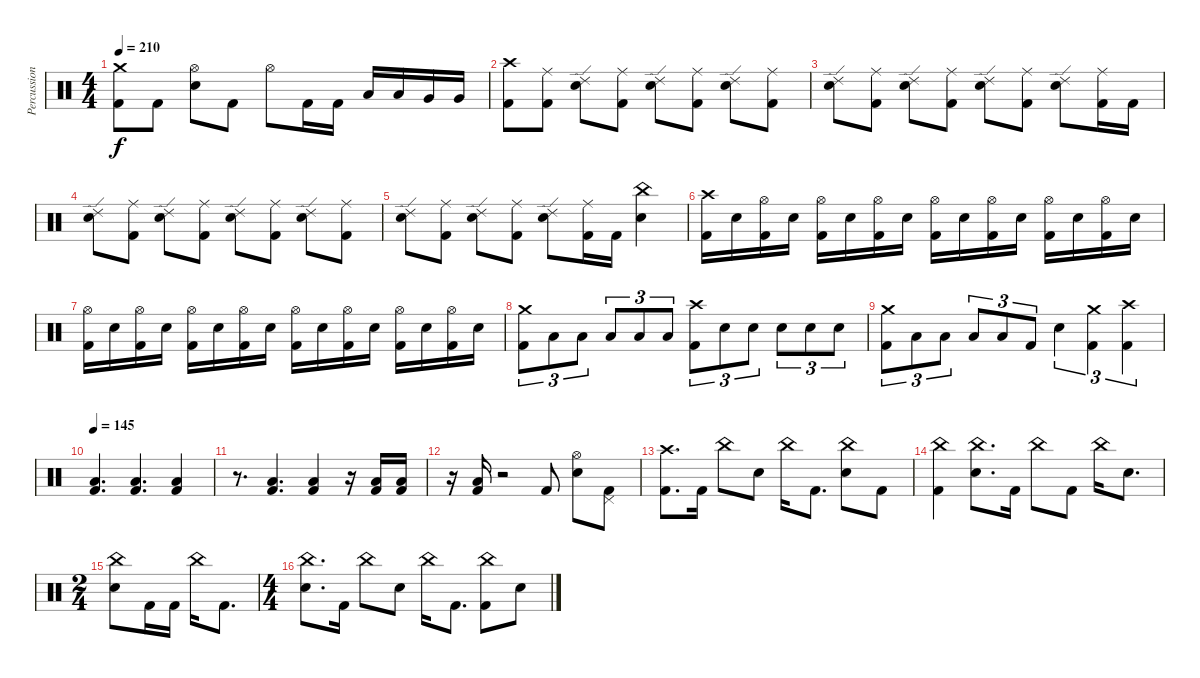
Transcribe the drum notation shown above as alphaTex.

\track ("Percussion" "Percussion") {instrument percussion}
\staff {score}
\articulation defaults
\ts (4 4)
\tempo 210
\clef neutral
\ks c
("Crash medium (hit)" "Kick (hit) 2").8{dy f} "Kick (hit) 2".8 ("Hi-Hat (open)" "Electric Snare (hit)").8 "Kick (hit) 2".8 "Hi-Hat (open)".8 "Kick (hit) 2".16 "Kick (hit) 2".16 "Low Tom (hit)".16 "Low Tom (hit)".16 "Very Low Tom (hit)".16 "Very Low Tom (hit)".16 |
("Crash high (hit)" "Kick (hit) 2").8 ("Ride (middle)" "Kick (hit) 2").8 ("Ride (edge) 2" "Electric Snare (hit)").8 ("Ride (middle)" "Kick (hit) 2").8 ("Ride (edge) 2" "Electric Snare (hit)").8 ("Ride (middle)" "Kick (hit) 2").8 ("Ride (edge) 2" "Electric Snare (hit)").8 ("Ride (middle)" "Kick (hit) 2").8 |
("Ride (edge) 2" "Electric Snare (hit)").8 ("Ride (middle)" "Kick (hit) 2").8 ("Ride (edge) 2" "Electric Snare (hit)").8 ("Ride (middle)" "Kick (hit) 2").8 ("Ride (edge) 2" "Electric Snare (hit)").8 ("Ride (middle)" "Kick (hit) 2").8 ("Ride (edge) 2" "Electric Snare (hit)").8 ("Ride (middle)" "Kick (hit) 2").16 "Kick (hit) 2".16 |
("Ride (edge) 2" "Electric Snare (hit)").8 ("Ride (middle)" "Kick (hit) 2").8 ("Ride (edge) 2" "Electric Snare (hit)").8 ("Ride (middle)" "Kick (hit) 2").8 ("Ride (edge) 2" "Electric Snare (hit)").8 ("Ride (middle)" "Kick (hit) 2").8 ("Ride (edge) 2" "Electric Snare (hit)").8 ("Ride (middle)" "Kick (hit) 2").8 |
("Ride (edge) 2" "Electric Snare (hit)").8 ("Ride (middle)" "Kick (hit) 2").8 ("Ride (edge) 2" "Electric Snare (hit)").8 ("Ride (middle)" "Kick (hit) 2").8 ("Ride (edge) 2" "Electric Snare (hit)").8 ("Ride (middle)" "Kick (hit) 2").16 "Kick (hit) 2".16 ("China (hit)" "Electric Snare (hit)").4 |
("Crash high (hit)" "Kick (hit) 2").16 "Electric Snare (hit)".16 ("Hi-Hat (open)" "Kick (hit) 2").16 "Electric Snare (hit)".16 ("Hi-Hat (open)" "Kick (hit) 2").16 "Electric Snare (hit)".16 ("Hi-Hat (open)" "Kick (hit) 2").16 "Electric Snare (hit)".16 ("Hi-Hat (open)" "Kick (hit) 2").16 "Electric Snare (hit)".16 ("Hi-Hat (open)" "Kick (hit) 2").16 "Electric Snare (hit)".16 ("Hi-Hat (open)" "Kick (hit) 2").16 "Electric Snare (hit)".16 ("Hi-Hat (open)" "Kick (hit) 2").16 "Electric Snare (hit)".16 |
("Hi-Hat (open)" "Kick (hit) 2").16 "Electric Snare (hit)".16 ("Hi-Hat (open)" "Kick (hit) 2").16 "Electric Snare (hit)".16 ("Hi-Hat (open)" "Kick (hit) 2").16 "Electric Snare (hit)".16 ("Hi-Hat (open)" "Kick (hit) 2").16 "Electric Snare (hit)".16 ("Hi-Hat (open)" "Kick (hit) 2").16 "Electric Snare (hit)".16 ("Hi-Hat (open)" "Kick (hit) 2").16 "Electric Snare (hit)".16 ("Hi-Hat (open)" "Kick (hit) 2").16 "Electric Snare (hit)".16 ("Hi-Hat (open)" "Kick (hit) 2").16 "Electric Snare (hit)".16 |
("Crash medium (hit)" "Kick (hit) 2").8{tu (3 2)} "Low Tom (hit)".8{tu (3 2)} "Low Tom (hit)".8{tu (3 2)} "Low Tom (hit)".8{tu (3 2)} "Low Tom (hit)".8{tu (3 2)} "Low Tom (hit)".8{tu (3 2)} ("Crash high (hit)" "Kick (hit) 2").8{tu (3 2)} "Electric Snare (hit)".8{tu (3 2)} "Electric Snare (hit)".8{tu (3 2)} "Electric Snare (hit)".8{tu (3 2)} "Electric Snare (hit)".8{tu (3 2)} "Electric Snare (hit)".8{tu (3 2)} |
("Crash medium (hit)" "Kick (hit) 2").8{tu (3 2)} "Low Tom (hit)".8{tu (3 2)} "Low Tom (hit)".8{tu (3 2)} "Low Tom (hit)".8{tu (3 2)} "Low Tom (hit)".8{tu (3 2)} "Kick (hit) 2".8{tu (3 2)} "Electric Snare (hit)".4{tu (3 2)} ("Crash medium (hit)" "Kick (hit) 2").4{tu (3 2)} ("Crash high (hit)" "Kick (hit) 2").4{tu (3 2)} |
\tempo 145
("Low Floor Tom (hit)" "Kick (hit) 2").4{d} ("Low Floor Tom (hit)" "Kick (hit) 2").4{d} ("Low Floor Tom (hit)" "Kick (hit) 2").4 |
r.8{d} ("Low Floor Tom (hit)" "Kick (hit) 2").4{d} ("Low Floor Tom (hit)" "Kick (hit) 2").4 r.16 ("Low Floor Tom (hit)" "Kick (hit) 2").16 ("Low Floor Tom (hit)" "Kick (hit) 2").16 |
r.16 ("Low Floor Tom (hit)" "Kick (hit) 2").16 r.2 "Kick (hit) 2".8 ("Hi-Hat (open)" "Electric Snare (hit)").8 ("Pedal Hi-Hat (hit)" "Kick (hit) 2").8 |
("Crash high (hit)" "Kick (hit) 2").8{d} "Kick (hit) 2".16 "China (hit)".8 "Electric Snare (hit)".8 "China (hit)".16 "Kick (hit) 2".8{d} ("China (hit)" "Electric Snare (hit)").8 "Kick (hit) 2".8 |
("China (hit)" "Kick (hit) 2").4 ("China (hit)" "Electric Snare (hit)").8{d} "Kick (hit) 2".16 "China (hit)".8 "Kick (hit) 2".8 "China (hit)".16 "Electric Snare (hit)".8{d} |
\ts (2 4)
("China (hit)" "Electric Snare (hit)").8 "Kick (hit) 2".16 "Kick (hit) 2".16 "China (hit)".16 "Kick (hit) 2".8{d} |
\ts (4 4)
("China (hit)" "Electric Snare (hit)").8{d} "Kick (hit) 2".16 "China (hit)".8 "Electric Snare (hit)".8 "China (hit)".16 "Kick (hit) 2".8{d} ("China (hit)" "Kick (hit) 2").8 "Electric Snare (hit)".8
